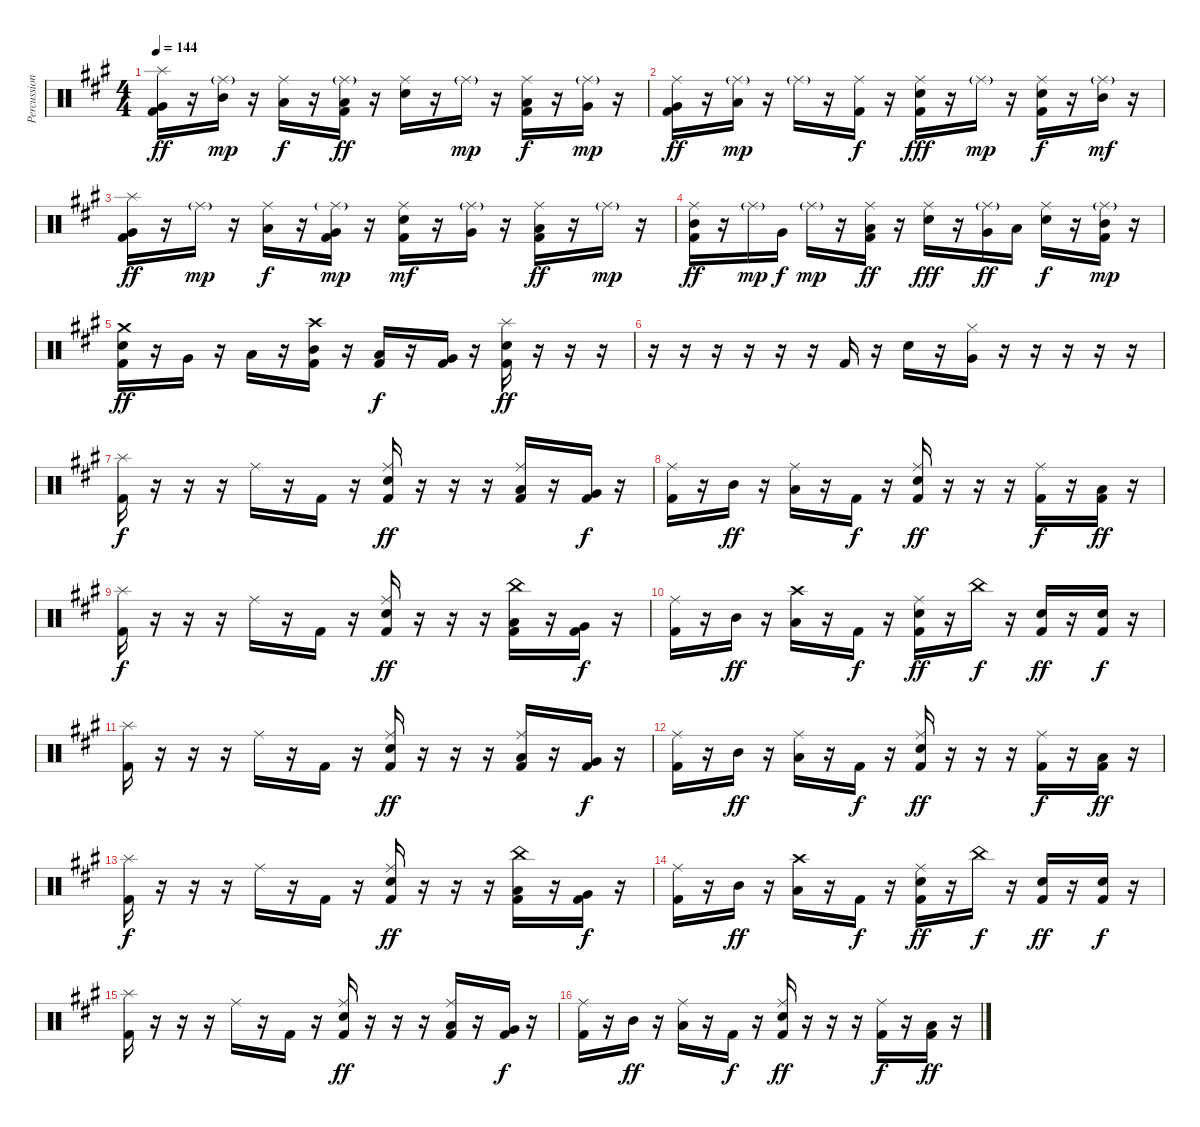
\track ("Percussion" "Percussion") {instrument percussion}
\staff {score}
\articulation defaults
\ts (4 4)
\tempo 144
\clef neutral
\ks f#minor
("Splash (hit)" "Very Low Tom (hit)" "Kick (hit) 2").16{dy ff} r.16 ("Ride (middle)"{g} "Mid Tom (hit)").16{dy mp} r.16 ("Ride (middle)" "Low Tom (hit)").16{dy f} r.16 ("Ride (middle)"{g} "Low Floor Tom (hit)" "Kick (hit) 2").16{dy ff} r.16 ("Ride (middle)" "Snare (hit) 2").16 r.16 "Ride (middle)"{g}.16{dy mp} r.16 ("Ride (middle)" "Low Tom (hit)" "Kick (hit) 2").16{dy f} r.16 ("Ride (middle)"{g} "Very Low Tom (hit)").16{dy mp} r.16 |
("Ride (middle)" "Very Low Tom (hit)" "Kick (hit) 2").16{dy ff} r.16 ("Ride (middle)"{g} "Low Floor Tom (hit)").16{dy mp} r.16 "Ride (middle)"{g}.16 r.16 ("Ride (middle)" "Kick (hit) 2").16{dy f} r.16 ("Ride (middle)" "Snare (hit) 2" "Kick (hit) 2").16{dy fff} r.16 "Ride (middle)"{g}.16{dy mp} r.16 ("Ride (middle)" "Snare (hit) 2" "Kick (hit) 2").16{dy f} r.16 ("Ride (middle)"{g} "Mid Tom (hit)").16{dy mf} r.16 |
("Splash (hit)" "Very Low Tom (hit)" "Kick (hit) 2").16{dy ff} r.16 "Ride (middle)"{g}.16{dy mp} r.16 ("Ride (middle)" "Low Tom (hit)").16{dy f} r.16 ("Ride (middle)"{g} "Very Low Tom (hit)" "Kick (hit) 2").16{dy mp} r.16 ("Ride (middle)" "Snare (hit) 2" "Kick (hit) 2").16{dy mf} r.16 ("Ride (middle)"{g} "Very Low Tom (hit)").16 r.16 ("Ride (middle)" "Low Floor Tom (hit)" "Kick (hit) 2").16{dy ff} r.16 "Ride (middle)"{g}.16{dy mp} r.16 |
("Ride (middle)" "Mid Tom (hit)" "Kick (hit) 2").16{dy ff} r.16 "Ride (middle)"{g}.16{dy mp} "Very Low Tom (hit)".16{dy f} "Ride (middle)"{g}.16{dy mp} r.16 ("Ride (middle)" "Low Tom (hit)" "Kick (hit) 2").16{dy ff} r.16 ("Ride (middle)" "Snare (hit) 2").16{dy fff} r.16 ("Ride (middle)"{g} "Very Low Tom (hit)").16{dy ff} "Low Tom (hit)".16 ("Ride (middle)" "Snare (hit) 2").16{dy f} r.16 ("Ride (middle)"{g} "Mid Tom (hit)" "Kick (hit) 2").16{dy mp} r.16 |
("Crash medium (hit)" "Snare (hit) 2" "Kick (hit) 2").16{dy ff} r.16 "Very Low Tom (hit)".16 r.16 "Low Floor Tom (hit)".16 r.16 ("Crash high (hit)" "Mid Tom (hit)" "Kick (hit) 2").16 r.16 ("Low Tom (hit)" "Kick (hit) 2").16{dy f} r.16 ("Very Low Tom (hit)" "Kick (hit) 2").16 r.16 ("Splash (hit)" "Snare (hit) 2" "Kick (hit) 2").16{dy ff} r.16 r.16 r.16 |
r.16 r.16 r.16 r.16 r.16 r.16 "Kick (hit) 2".16 r.16 "Snare (hit) 2".16 r.16 ("Hi-Hat (closed)" "Very Low Tom (hit)").16 r.16 r.16 r.16 r.16 r.16 |
("Splash (hit)" "Kick (hit) 2").16{dy f} r.16 r.16 r.16 "Ride (middle)".16 r.16 "Kick (hit) 2".16 r.16 ("Ride (middle)" "Snare (hit) 2" "Kick (hit) 2").16{dy ff} r.16 r.16 r.16 ("Ride (middle)" "Low Tom (hit)" "Kick (hit) 2").16 r.16 ("Very Low Tom (hit)" "Kick (hit) 2").16{dy f} r.16 |
("Ride (middle)" "Kick (hit) 2").16 r.16 "Mid Tom (hit)".16{dy ff} r.16 ("Ride (middle)" "Low Tom (hit)").16 r.16 "Kick (hit) 2".16{dy f} r.16 ("Ride (middle)" "Snare (hit) 2" "Kick (hit) 2").16{dy ff} r.16 r.16 r.16 ("Ride (middle)" "Kick (hit) 2").16{dy f} r.16 ("Low Floor Tom (hit)" "Kick (hit) 2").16{dy ff} r.16 |
("Splash (hit)" "Kick (hit) 2").16{dy f} r.16 r.16 r.16 "Ride (middle)".16 r.16 "Kick (hit) 2".16 r.16 ("Ride (middle)" "Snare (hit) 2" "Kick (hit) 2").16{dy ff} r.16 r.16 r.16 ("China (hit)" "Low Tom (hit)" "Kick (hit) 2").16 r.16 ("Very Low Tom (hit)" "Kick (hit) 2").16{dy f} r.16 |
("Ride (middle)" "Kick (hit) 2").16 r.16 "Mid Tom (hit)".16{dy ff} r.16 ("Crash high (hit)" "Low Tom (hit)").16 r.16 "Kick (hit) 2".16{dy f} r.16 ("Ride (middle)" "Snare (hit) 2" "Kick (hit) 2").16{dy ff} r.16 "China (hit)".16{dy f} r.16 ("Snare (hit) 2" "Kick (hit) 2").16{dy ff} r.16 ("Snare (hit) 2" "Kick (hit) 2").16{dy f} r.16 |
("Splash (hit)" "Kick (hit) 2").16 r.16 r.16 r.16 "Ride (middle)".16 r.16 "Kick (hit) 2".16 r.16 ("Ride (middle)" "Snare (hit) 2" "Kick (hit) 2").16{dy ff} r.16 r.16 r.16 ("Ride (middle)" "Low Tom (hit)" "Kick (hit) 2").16 r.16 ("Very Low Tom (hit)" "Kick (hit) 2").16{dy f} r.16 |
("Ride (middle)" "Kick (hit) 2").16 r.16 "Mid Tom (hit)".16{dy ff} r.16 ("Ride (middle)" "Low Tom (hit)").16 r.16 "Kick (hit) 2".16{dy f} r.16 ("Ride (middle)" "Snare (hit) 2" "Kick (hit) 2").16{dy ff} r.16 r.16 r.16 ("Ride (middle)" "Kick (hit) 2").16{dy f} r.16 ("Low Floor Tom (hit)" "Kick (hit) 2").16{dy ff} r.16 |
("Splash (hit)" "Kick (hit) 2").16{dy f} r.16 r.16 r.16 "Ride (middle)".16 r.16 "Kick (hit) 2".16 r.16 ("Ride (middle)" "Snare (hit) 2" "Kick (hit) 2").16{dy ff} r.16 r.16 r.16 ("China (hit)" "Low Tom (hit)" "Kick (hit) 2").16 r.16 ("Very Low Tom (hit)" "Kick (hit) 2").16{dy f} r.16 |
("Ride (middle)" "Kick (hit) 2").16 r.16 "Mid Tom (hit)".16{dy ff} r.16 ("Crash high (hit)" "Low Tom (hit)").16 r.16 "Kick (hit) 2".16{dy f} r.16 ("Ride (middle)" "Snare (hit) 2" "Kick (hit) 2").16{dy ff} r.16 "China (hit)".16{dy f} r.16 ("Snare (hit) 2" "Kick (hit) 2").16{dy ff} r.16 ("Snare (hit) 2" "Kick (hit) 2").16{dy f} r.16 |
("Splash (hit)" "Kick (hit) 2").16 r.16 r.16 r.16 "Ride (middle)".16 r.16 "Kick (hit) 2".16 r.16 ("Ride (middle)" "Snare (hit) 2" "Kick (hit) 2").16{dy ff} r.16 r.16 r.16 ("Ride (middle)" "Low Tom (hit)" "Kick (hit) 2").16 r.16 ("Very Low Tom (hit)" "Kick (hit) 2").16{dy f} r.16 |
("Ride (middle)" "Kick (hit) 2").16 r.16 "Mid Tom (hit)".16{dy ff} r.16 ("Ride (middle)" "Low Tom (hit)").16 r.16 "Kick (hit) 2".16{dy f} r.16 ("Ride (middle)" "Snare (hit) 2" "Kick (hit) 2").16{dy ff} r.16 r.16 r.16 ("Ride (middle)" "Kick (hit) 2").16{dy f} r.16 ("Low Floor Tom (hit)" "Kick (hit) 2").16{dy ff} r.16
